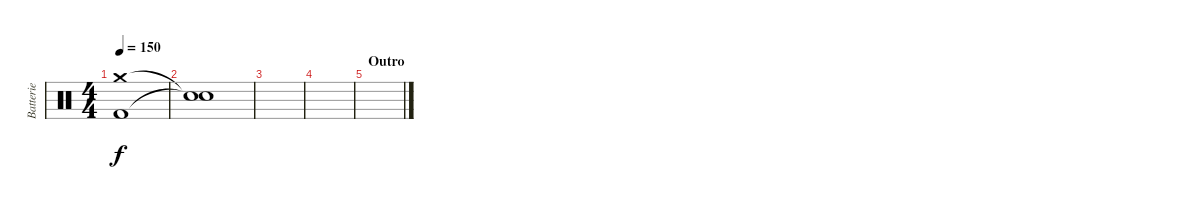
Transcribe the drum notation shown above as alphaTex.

\track ("Batterie" "Batterie") {instrument percussion}
\staff {score}
\articulation defaults
\ts (4 4)
\tempo 150
\clef neutral
\ks c
("Crash medium (hit)" "Kick (hit) 2").1{dy f} |
("Snare (hit)"{t} "Snare (hit)"{t}).1 |
|
|
\section ("" "Outro")
